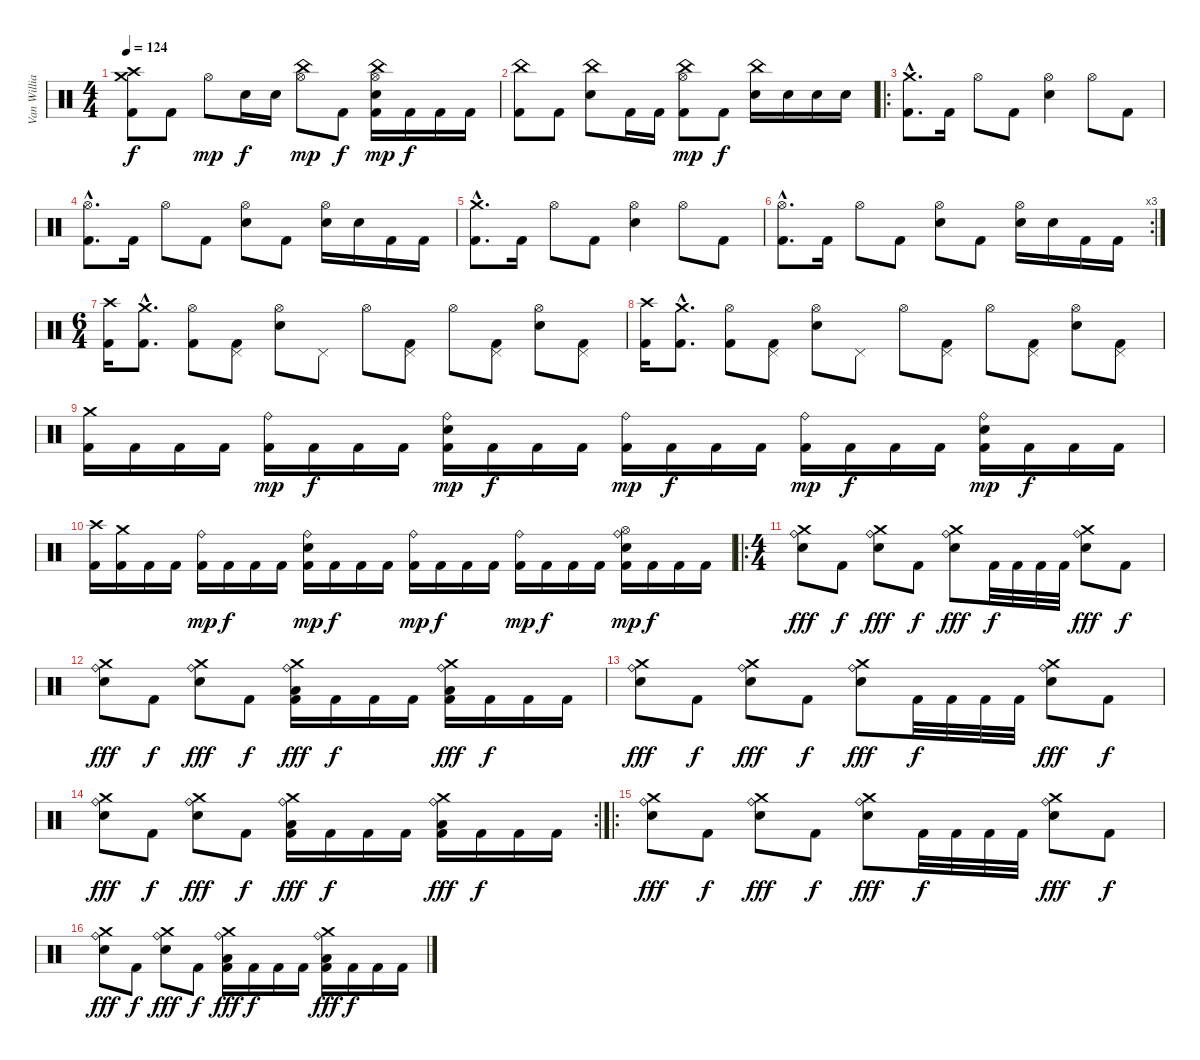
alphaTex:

\track ("Van Williams" "Van Willia") {instrument percussion}
\staff {score}
\articulation defaults
\ts (4 4)
\tempo 124
\clef neutral
\ks c
("Crash medium (hit)" "Crash high (hit)" "Kick (hit) 2").8{dy f} "Kick (hit) 2".8 "Hi-Hat (open)".8{dy mp} "Electric Snare (hit)".16{dy f} "Electric Snare (hit)".16 ("China (hit)" "Hi-Hat (open)").8{dy mp} "Kick (hit) 2".8{dy f} ("China (hit)" "Hi-Hat (open)" "Electric Snare (hit)" "Kick (hit) 2").16{dy mp} "Kick (hit) 2".16{dy f} "Kick (hit) 2".16 "Kick (hit) 2".16 |
("China (hit)" "Kick (hit) 2").8 "Kick (hit) 2".8 ("China (hit)" "Electric Snare (hit)").8 "Kick (hit) 2".16 "Kick (hit) 2".16 ("China (hit)" "Hi-Hat (open)" "Kick (hit) 2").8{dy mp} "Kick (hit) 2".8{dy f} ("China (hit)" "Electric Snare (hit)").16 "Electric Snare (hit)".16 "Electric Snare (hit)".16 "Electric Snare (hit)".16 |
\ro
("Crash medium (hit)"{hac} "Kick (hit) 2"{hac}).8{d} "Kick (hit) 2".16 "Hi-Hat (open)".8 "Kick (hit) 2".8 ("Hi-Hat (open)" "Electric Snare (hit)").4 "Hi-Hat (open)".8 "Kick (hit) 2".8 |
("Hi-Hat (open)"{hac} "Kick (hit) 2"{hac}).8{d} "Kick (hit) 2".16 "Hi-Hat (open)".8 "Kick (hit) 2".8 ("Hi-Hat (open)" "Electric Snare (hit)").8 "Kick (hit) 2".8 ("Hi-Hat (open)" "Electric Snare (hit)").16 "Electric Snare (hit)".16 "Kick (hit) 2".16 "Kick (hit) 2".16 |
("Crash medium (hit)"{hac} "Kick (hit) 2"{hac}).8{d} "Kick (hit) 2".16 "Hi-Hat (open)".8 "Kick (hit) 2".8 ("Hi-Hat (open)" "Electric Snare (hit)").4 "Hi-Hat (open)".8 "Kick (hit) 2".8 |
\rc 3
("Hi-Hat (open)"{hac} "Kick (hit) 2"{hac}).8{d} "Kick (hit) 2".16 "Hi-Hat (open)".8 "Kick (hit) 2".8 ("Hi-Hat (open)" "Electric Snare (hit)").8 "Kick (hit) 2".8 ("Hi-Hat (open)" "Electric Snare (hit)").16 "Electric Snare (hit)".16 "Kick (hit) 2".16 "Kick (hit) 2".16 |
\ts (6 4)
("Crash high (hit)" "Kick (hit) 2").16 ("Crash medium (hit)"{hac} "Kick (hit) 2"{hac}).8{d} ("Hi-Hat (open)" "Kick (hit) 2").8 ("Pedal Hi-Hat (hit)" "Kick (hit) 2").8 ("Hi-Hat (open)" "Electric Snare (hit)").8 "Pedal Hi-Hat (hit)".8 "Hi-Hat (open)".8 ("Pedal Hi-Hat (hit)" "Kick (hit) 2").8 "Hi-Hat (open)".8 ("Pedal Hi-Hat (hit)" "Kick (hit) 2").8 ("Hi-Hat (open)" "Electric Snare (hit)").8 ("Pedal Hi-Hat (hit)" "Kick (hit) 2").8 |
("Crash high (hit)" "Kick (hit) 2").16 ("Crash medium (hit)"{hac} "Kick (hit) 2"{hac}).8{d} ("Hi-Hat (open)" "Kick (hit) 2").8 ("Pedal Hi-Hat (hit)" "Kick (hit) 2").8 ("Hi-Hat (open)" "Electric Snare (hit)").8 "Pedal Hi-Hat (hit)".8 "Hi-Hat (open)".8 ("Pedal Hi-Hat (hit)" "Kick (hit) 2").8 "Hi-Hat (open)".8 ("Pedal Hi-Hat (hit)" "Kick (hit) 2").8 ("Hi-Hat (open)" "Electric Snare (hit)").8 ("Pedal Hi-Hat (hit)" "Kick (hit) 2").8 |
("Crash medium (hit)" "Kick (hit) 2").16 "Kick (hit) 2".16 "Kick (hit) 2".16 "Kick (hit) 2".16 ("Ride (bell)" "Kick (hit) 2").16{dy mp} "Kick (hit) 2".16{dy f} "Kick (hit) 2".16 "Kick (hit) 2".16 ("Ride (bell)" "Electric Snare (hit)" "Kick (hit) 2").16{dy mp} "Kick (hit) 2".16{dy f} "Kick (hit) 2".16 "Kick (hit) 2".16 ("Ride (bell)" "Kick (hit) 2").16{dy mp} "Kick (hit) 2".16{dy f} "Kick (hit) 2".16 "Kick (hit) 2".16 ("Ride (bell)" "Kick (hit) 2").16{dy mp} "Kick (hit) 2".16{dy f} "Kick (hit) 2".16 "Kick (hit) 2".16 ("Ride (bell)" "Electric Snare (hit)" "Kick (hit) 2").16{dy mp} "Kick (hit) 2".16{dy f} "Kick (hit) 2".16 "Kick (hit) 2".16 |
("Crash high (hit)" "Kick (hit) 2").16 ("Crash medium (hit)" "Kick (hit) 2").16 "Kick (hit) 2".16 "Kick (hit) 2".16 ("Ride (bell)" "Kick (hit) 2").16{dy mp} "Kick (hit) 2".16{dy f} "Kick (hit) 2".16 "Kick (hit) 2".16 ("Ride (bell)" "Electric Snare (hit)" "Kick (hit) 2").16{dy mp} "Kick (hit) 2".16{dy f} "Kick (hit) 2".16 "Kick (hit) 2".16 ("Ride (bell)" "Kick (hit) 2").16{dy mp} "Kick (hit) 2".16{dy f} "Kick (hit) 2".16 "Kick (hit) 2".16 ("Ride (bell)" "Kick (hit) 2").16{dy mp} "Kick (hit) 2".16{dy f} "Kick (hit) 2".16 "Kick (hit) 2".16 ("Ride (bell)" "Hi-Hat (open)" "Electric Snare (hit)" "Kick (hit) 2").16{dy mp} "Kick (hit) 2".16{dy f} "Kick (hit) 2".16 "Kick (hit) 2".16 |
\ro
\ts (4 4)
("Crash medium (hit)" "Ride (bell)" "Electric Snare (hit)").8{dy fff} "Kick (hit) 2".8{dy f} ("Crash medium (hit)" "Ride (bell)" "Electric Snare (hit)").8{dy fff} "Kick (hit) 2".8{dy f} ("Crash medium (hit)" "Ride (bell)" "Electric Snare (hit)").8{dy fff} "Kick (hit) 2".32{dy f} "Kick (hit) 2".32 "Kick (hit) 2".32 "Kick (hit) 2".32 ("Crash medium (hit)" "Ride (bell)" "Electric Snare (hit)").8{dy fff} "Kick (hit) 2".8{dy f} |
("Crash medium (hit)" "Ride (bell)" "Electric Snare (hit)").8{dy fff} "Kick (hit) 2".8{dy f} ("Crash medium (hit)" "Ride (bell)" "Electric Snare (hit)").8{dy fff} "Kick (hit) 2".8{dy f} ("Crash medium (hit)" "Ride (bell)" "Low Floor Tom (hit)" "Kick (hit) 2").16{dy fff} "Kick (hit) 2".16{dy f} "Kick (hit) 2".16 "Kick (hit) 2".16 ("Crash medium (hit)" "Ride (bell)" "Low Floor Tom (hit)" "Kick (hit) 2").16{dy fff} "Kick (hit) 2".16{dy f} "Kick (hit) 2".16 "Kick (hit) 2".16 |
("Crash medium (hit)" "Ride (bell)" "Electric Snare (hit)").8{dy fff} "Kick (hit) 2".8{dy f} ("Crash medium (hit)" "Ride (bell)" "Electric Snare (hit)").8{dy fff} "Kick (hit) 2".8{dy f} ("Crash medium (hit)" "Ride (bell)" "Electric Snare (hit)").8{dy fff} "Kick (hit) 2".32{dy f} "Kick (hit) 2".32 "Kick (hit) 2".32 "Kick (hit) 2".32 ("Crash medium (hit)" "Ride (bell)" "Electric Snare (hit)").8{dy fff} "Kick (hit) 2".8{dy f} |
\rc 2
("Crash medium (hit)" "Ride (bell)" "Electric Snare (hit)").8{dy fff} "Kick (hit) 2".8{dy f} ("Crash medium (hit)" "Ride (bell)" "Electric Snare (hit)").8{dy fff} "Kick (hit) 2".8{dy f} ("Crash medium (hit)" "Ride (bell)" "Low Floor Tom (hit)" "Kick (hit) 2").16{dy fff} "Kick (hit) 2".16{dy f} "Kick (hit) 2".16 "Kick (hit) 2".16 ("Crash medium (hit)" "Ride (bell)" "Low Floor Tom (hit)" "Kick (hit) 2").16{dy fff} "Kick (hit) 2".16{dy f} "Kick (hit) 2".16 "Kick (hit) 2".16 |
\ro
("Crash medium (hit)" "Ride (bell)" "Electric Snare (hit)").8{dy fff} "Kick (hit) 2".8{dy f} ("Crash medium (hit)" "Ride (bell)" "Electric Snare (hit)").8{dy fff} "Kick (hit) 2".8{dy f} ("Crash medium (hit)" "Ride (bell)" "Electric Snare (hit)").8{dy fff} "Kick (hit) 2".32{dy f} "Kick (hit) 2".32 "Kick (hit) 2".32 "Kick (hit) 2".32 ("Crash medium (hit)" "Ride (bell)" "Electric Snare (hit)").8{dy fff} "Kick (hit) 2".8{dy f} |
("Crash medium (hit)" "Ride (bell)" "Electric Snare (hit)").8{dy fff} "Kick (hit) 2".8{dy f} ("Crash medium (hit)" "Ride (bell)" "Electric Snare (hit)").8{dy fff} "Kick (hit) 2".8{dy f} ("Crash medium (hit)" "Ride (bell)" "Low Floor Tom (hit)" "Kick (hit) 2").16{dy fff} "Kick (hit) 2".16{dy f} "Kick (hit) 2".16 "Kick (hit) 2".16 ("Crash medium (hit)" "Ride (bell)" "Low Floor Tom (hit)" "Kick (hit) 2").16{dy fff} "Kick (hit) 2".16{dy f} "Kick (hit) 2".16 "Kick (hit) 2".16
